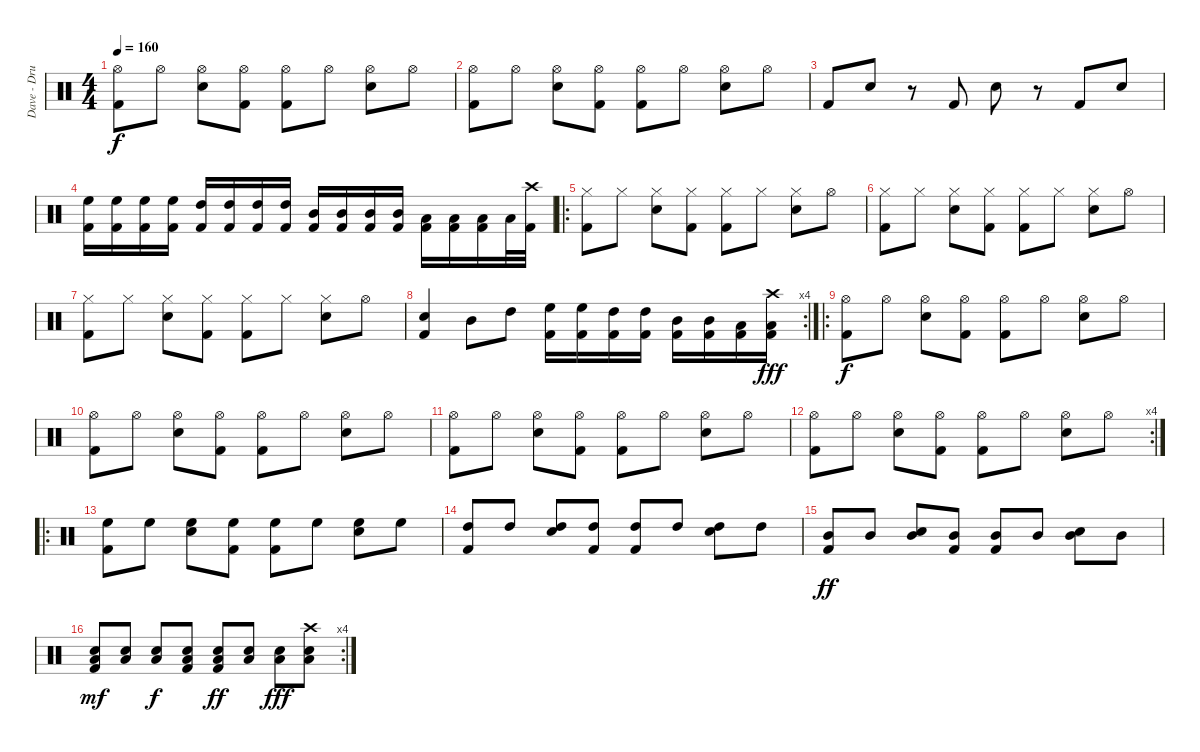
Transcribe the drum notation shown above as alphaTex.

\track ("Dave - Drums" "Dave - Dru") {instrument percussion}
\staff {score}
\articulation defaults
\ts (4 4)
\tempo 160
\clef neutral
\ks c
("Hi-Hat (open)" "Kick (hit) 2").8{dy f} "Hi-Hat (open)".8 ("Hi-Hat (open)" "Snare (hit) 2").8 ("Hi-Hat (open)" "Kick (hit) 2").8 ("Hi-Hat (open)" "Kick (hit) 2").8 "Hi-Hat (open)".8 ("Hi-Hat (open)" "Snare (hit) 2").8 "Hi-Hat (open)".8 |
("Hi-Hat (open)" "Kick (hit) 2").8 "Hi-Hat (open)".8 ("Hi-Hat (open)" "Snare (hit) 2").8 ("Hi-Hat (open)" "Kick (hit) 2").8 ("Hi-Hat (open)" "Kick (hit) 2").8 "Hi-Hat (open)".8 ("Hi-Hat (open)" "Snare (hit) 2").8 "Hi-Hat (open)".8 |
"Kick (hit) 2".8 "Snare (hit) 2".8 r.8 "Kick (hit) 2".8 "Snare (hit) 2".8 r.8 "Kick (hit) 2".8 "Snare (hit) 2".8 |
("High Floor Tom (hit)" "Kick (hit) 2").16 ("High Floor Tom (hit)" "Kick (hit) 2").16 ("High Floor Tom (hit)" "Kick (hit) 2").16 ("High Floor Tom (hit)" "Kick (hit) 2").16 ("High Tom (hit)" "Kick (hit) 2").16 ("High Tom (hit)" "Kick (hit) 2").16 ("High Tom (hit)" "Kick (hit) 2").16 ("High Tom (hit)" "Kick (hit) 2").16 ("Mid Tom (hit)" "Kick (hit) 2").16 ("Mid Tom (hit)" "Kick (hit) 2").16 ("Mid Tom (hit)" "Kick (hit) 2").16 ("Mid Tom (hit)" "Kick (hit) 2").16 ("Low Tom (hit)" "Kick (hit) 2").16 ("Low Tom (hit)" "Kick (hit) 2").16 ("Low Tom (hit)" "Kick (hit) 2").16 "Low Tom (hit)".32 ("Crash high (hit)" "Kick (hit) 2").32 |
\ro
("Hi-Hat (closed)" "Kick (hit) 2").8 "Hi-Hat (closed)".8 ("Hi-Hat (closed)" "Snare (hit) 2").8 ("Hi-Hat (closed)" "Kick (hit) 2").8 ("Hi-Hat (closed)" "Kick (hit) 2").8 "Hi-Hat (closed)".8 ("Hi-Hat (closed)" "Snare (hit) 2").8 "Hi-Hat (open)".8 |
("Hi-Hat (closed)" "Kick (hit) 2").8 "Hi-Hat (closed)".8 ("Hi-Hat (closed)" "Snare (hit) 2").8 ("Hi-Hat (closed)" "Kick (hit) 2").8 ("Hi-Hat (closed)" "Kick (hit) 2").8 "Hi-Hat (closed)".8 ("Hi-Hat (closed)" "Snare (hit) 2").8 "Hi-Hat (open)".8 |
("Hi-Hat (closed)" "Kick (hit) 2").8 "Hi-Hat (closed)".8 ("Hi-Hat (closed)" "Snare (hit) 2").8 ("Hi-Hat (closed)" "Kick (hit) 2").8 ("Hi-Hat (closed)" "Kick (hit) 2").8 "Hi-Hat (closed)".8 ("Hi-Hat (closed)" "Snare (hit) 2").8 "Hi-Hat (open)".8 |
\rc 4
("Snare (hit) 2" "Kick (hit) 2").4 "Mid Tom (hit)".8 "High Tom (hit)".8 ("High Floor Tom (hit)" "Kick (hit) 2").16 ("High Floor Tom (hit)" "Kick (hit) 2").16 ("High Tom (hit)" "Kick (hit) 2").16 ("High Tom (hit)" "Kick (hit) 2").16 ("Mid Tom (hit)" "Kick (hit) 2").16 ("Mid Tom (hit)" "Kick (hit) 2").16 ("Low Tom (hit)" "Kick (hit) 2").16 ("Crash high (hit)" "Low Tom (hit)" "Kick (hit) 2").16{dy fff} |
\ro
("Hi-Hat (open)" "Kick (hit) 2").8{dy f} "Hi-Hat (open)".8 ("Hi-Hat (open)" "Snare (hit) 2").8 ("Hi-Hat (open)" "Kick (hit) 2").8 ("Hi-Hat (open)" "Kick (hit) 2").8 "Hi-Hat (open)".8 ("Hi-Hat (open)" "Snare (hit) 2").8 "Hi-Hat (open)".8 |
("Hi-Hat (open)" "Kick (hit) 2").8 "Hi-Hat (open)".8 ("Hi-Hat (open)" "Snare (hit) 2").8 ("Hi-Hat (open)" "Kick (hit) 2").8 ("Hi-Hat (open)" "Kick (hit) 2").8 "Hi-Hat (open)".8 ("Hi-Hat (open)" "Snare (hit) 2").8 "Hi-Hat (open)".8 |
("Hi-Hat (open)" "Kick (hit) 2").8 "Hi-Hat (open)".8 ("Hi-Hat (open)" "Snare (hit) 2").8 ("Hi-Hat (open)" "Kick (hit) 2").8 ("Hi-Hat (open)" "Kick (hit) 2").8 "Hi-Hat (open)".8 ("Hi-Hat (open)" "Snare (hit) 2").8 "Hi-Hat (open)".8 |
\rc 4
("Hi-Hat (open)" "Kick (hit) 2").8 "Hi-Hat (open)".8 ("Hi-Hat (open)" "Snare (hit) 2").8 ("Hi-Hat (open)" "Kick (hit) 2").8 ("Hi-Hat (open)" "Kick (hit) 2").8 "Hi-Hat (open)".8 ("Hi-Hat (open)" "Snare (hit) 2").8 "Hi-Hat (open)".8 |
\ro
("High Floor Tom (hit)" "Kick (hit) 2").8 "High Floor Tom (hit)".8 ("High Floor Tom (hit)" "Snare (hit) 2").8 ("High Floor Tom (hit)" "Kick (hit) 2").8 ("High Floor Tom (hit)" "Kick (hit) 2").8 "High Floor Tom (hit)".8 ("High Floor Tom (hit)" "Snare (hit) 2").8 "High Floor Tom (hit)".8 |
("High Tom (hit)" "Kick (hit) 2").8 "High Tom (hit)".8 ("High Tom (hit)" "Snare (hit) 2").8 ("High Tom (hit)" "Kick (hit) 2").8 ("High Tom (hit)" "Kick (hit) 2").8 "High Tom (hit)".8 ("High Tom (hit)" "Snare (hit) 2").8 "High Tom (hit)".8 |
("Mid Tom (hit)" "Kick (hit) 2").8{dy ff} "Mid Tom (hit)".8 ("Mid Tom (hit)" "Snare (hit) 2").8 ("Mid Tom (hit)" "Kick (hit) 2").8 ("Mid Tom (hit)" "Kick (hit) 2").8 "Mid Tom (hit)".8 ("Mid Tom (hit)" "Snare (hit) 2").8 "Mid Tom (hit)".8 |
\rc 4
("Low Tom (hit)" "Snare (hit) 2" "Kick (hit) 2").8{dy mf} ("Low Tom (hit)" "Snare (hit) 2").8 ("Low Tom (hit)" "Snare (hit) 2").8{dy f} ("Low Tom (hit)" "Snare (hit) 2" "Kick (hit) 2").8 ("Low Tom (hit)" "Snare (hit) 2" "Kick (hit) 2").8{dy ff} ("Low Tom (hit)" "Snare (hit) 2").8 ("Low Tom (hit)" "Snare (hit) 2").8{dy fff} ("Crash high (hit)" "Low Tom (hit)" "Snare (hit) 2").8
